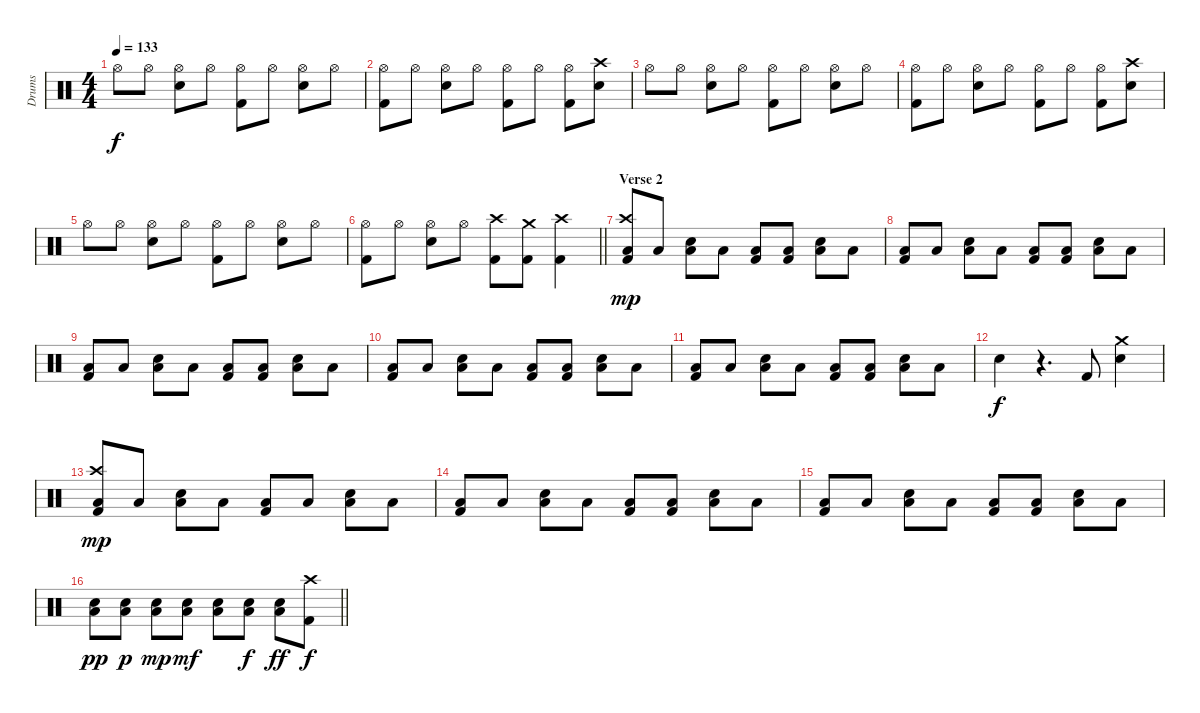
\track ("Drums" "Drums") {instrument percussion}
\staff {score}
\articulation defaults
\ts (4 4)
\tempo 133
\clef neutral
\ks c "Hi-Hat (open)".8{dy f} "Hi-Hat (open)".8
("Hi-Hat (open)" "Snare (hit) 2").8 "Hi-Hat (open)".8 ("Hi-Hat (open)" "Kick (hit) 2").8 "Hi-Hat (open)".8 ("Hi-Hat (open)" "Snare (hit) 2").8 "Hi-Hat (open)".8 |
("Hi-Hat (open)" "Kick (hit) 2").8 "Hi-Hat (open)".8 ("Hi-Hat (open)" "Snare (hit) 2").8 "Hi-Hat (open)".8 ("Hi-Hat (open)" "Kick (hit) 2").8 "Hi-Hat (open)".8 ("Hi-Hat (open)" "Kick (hit) 2").8 ("Crash high (hit)" "Snare (hit) 2").8 |
"Hi-Hat (open)".8 "Hi-Hat (open)".8 ("Hi-Hat (open)" "Snare (hit) 2").8 "Hi-Hat (open)".8 ("Hi-Hat (open)" "Kick (hit) 2").8 "Hi-Hat (open)".8 ("Hi-Hat (open)" "Snare (hit) 2").8 "Hi-Hat (open)".8 |
("Hi-Hat (open)" "Kick (hit) 2").8 "Hi-Hat (open)".8 ("Hi-Hat (open)" "Snare (hit) 2").8 "Hi-Hat (open)".8 ("Hi-Hat (open)" "Kick (hit) 2").8 "Hi-Hat (open)".8 ("Hi-Hat (open)" "Kick (hit) 2").8 ("Crash high (hit)" "Snare (hit) 2").8 |
"Hi-Hat (open)".8 "Hi-Hat (open)".8 ("Hi-Hat (open)" "Snare (hit) 2").8 "Hi-Hat (open)".8 ("Hi-Hat (open)" "Kick (hit) 2").8 "Hi-Hat (open)".8 ("Hi-Hat (open)" "Snare (hit) 2").8 "Hi-Hat (open)".8 |
\barLineRight lightlight
("Hi-Hat (open)" "Kick (hit) 2").8 "Hi-Hat (open)".8 ("Hi-Hat (open)" "Snare (hit) 2").8 "Hi-Hat (open)".8 ("Crash high (hit)" "Kick (hit) 2").8 ("Crash medium (hit)" "Kick (hit) 2").8 ("Crash high (hit)" "Kick (hit) 2").4 |
\section ("" "Verse 2")
("Crash high (hit)" "Low Floor Tom (hit)" "Kick (hit) 2").8{dy mp} "Low Floor Tom (hit)".8 ("Low Floor Tom (hit)" "Snare (hit) 2").8 "Low Floor Tom (hit)".8 ("Low Floor Tom (hit)" "Kick (hit) 2").8 ("Low Floor Tom (hit)" "Kick (hit) 2").8 ("Low Floor Tom (hit)" "Snare (hit) 2").8 "Low Floor Tom (hit)".8 |
("Low Floor Tom (hit)" "Kick (hit) 2").8 "Low Floor Tom (hit)".8 ("Low Floor Tom (hit)" "Snare (hit) 2").8 "Low Floor Tom (hit)".8 ("Low Floor Tom (hit)" "Kick (hit) 2").8 ("Low Floor Tom (hit)" "Kick (hit) 2").8 ("Low Floor Tom (hit)" "Snare (hit) 2").8 "Low Floor Tom (hit)".8 |
("Low Floor Tom (hit)" "Kick (hit) 2").8 "Low Floor Tom (hit)".8 ("Low Floor Tom (hit)" "Snare (hit) 2").8 "Low Floor Tom (hit)".8 ("Low Floor Tom (hit)" "Kick (hit) 2").8 ("Low Floor Tom (hit)" "Kick (hit) 2").8 ("Low Floor Tom (hit)" "Snare (hit) 2").8 "Low Floor Tom (hit)".8 |
("Low Floor Tom (hit)" "Kick (hit) 2").8 "Low Floor Tom (hit)".8 ("Low Floor Tom (hit)" "Snare (hit) 2").8 "Low Floor Tom (hit)".8 ("Low Floor Tom (hit)" "Kick (hit) 2").8 ("Low Floor Tom (hit)" "Kick (hit) 2").8 ("Low Floor Tom (hit)" "Snare (hit) 2").8 "Low Floor Tom (hit)".8 |
("Low Floor Tom (hit)" "Kick (hit) 2").8 "Low Floor Tom (hit)".8 ("Low Floor Tom (hit)" "Snare (hit) 2").8 "Low Floor Tom (hit)".8 ("Low Floor Tom (hit)" "Kick (hit) 2").8 ("Low Floor Tom (hit)" "Kick (hit) 2").8 ("Low Floor Tom (hit)" "Snare (hit) 2").8 "Low Floor Tom (hit)".8 |
"Snare (hit) 2".4{dy f} r.4{d} "Kick (hit) 2".8 ("Crash medium (hit)" "Snare (hit) 2").4 |
("Crash high (hit)" "Low Floor Tom (hit)" "Kick (hit) 2").8{dy mp} "Low Floor Tom (hit)".8 ("Low Floor Tom (hit)" "Snare (hit) 2").8 "Low Floor Tom (hit)".8 ("Low Floor Tom (hit)" "Kick (hit) 2").8 "Low Floor Tom (hit)".8 ("Low Floor Tom (hit)" "Snare (hit) 2").8 "Low Floor Tom (hit)".8 |
("Low Floor Tom (hit)" "Kick (hit) 2").8 "Low Floor Tom (hit)".8 ("Low Floor Tom (hit)" "Snare (hit) 2").8 "Low Floor Tom (hit)".8 ("Low Floor Tom (hit)" "Kick (hit) 2").8 ("Low Floor Tom (hit)" "Kick (hit) 2").8 ("Low Floor Tom (hit)" "Snare (hit) 2").8 "Low Floor Tom (hit)".8 |
("Low Floor Tom (hit)" "Kick (hit) 2").8 "Low Floor Tom (hit)".8 ("Low Floor Tom (hit)" "Snare (hit) 2").8 "Low Floor Tom (hit)".8 ("Low Floor Tom (hit)" "Kick (hit) 2").8 ("Low Floor Tom (hit)" "Kick (hit) 2").8 ("Low Floor Tom (hit)" "Snare (hit) 2").8 "Low Floor Tom (hit)".8 |
\barLineRight lightlight
("Low Floor Tom (hit)" "Snare (hit) 2").8{dy pp} ("Low Floor Tom (hit)" "Snare (hit) 2").8{dy p} ("Low Floor Tom (hit)" "Snare (hit) 2").8{dy mp} ("Low Floor Tom (hit)" "Snare (hit) 2").8{dy mf} ("Low Floor Tom (hit)" "Snare (hit) 2").8 ("Low Floor Tom (hit)" "Snare (hit) 2").8{dy f} ("Low Floor Tom (hit)" "Snare (hit) 2").8{dy ff} ("Crash high (hit)" "Kick (hit) 2").8{dy f}
